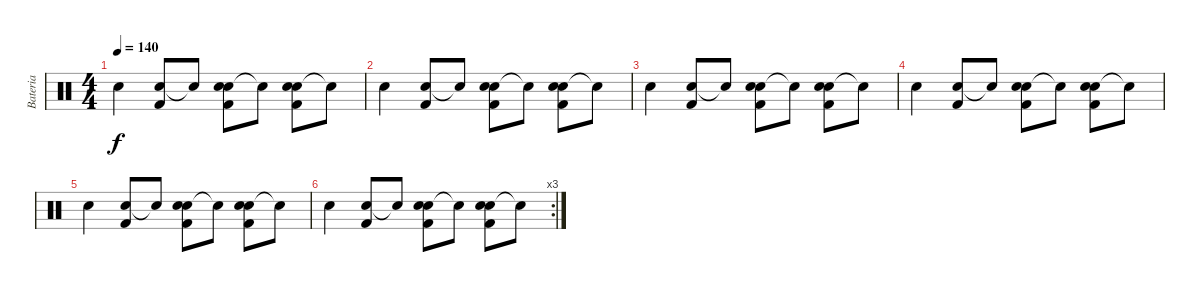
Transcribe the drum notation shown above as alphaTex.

\track ("Bateria" "Bateria") {instrument percussion}
\staff {score}
\articulation defaults
\ts (4 4)
\tempo 140
\clef neutral
\ks c "Snare (hit) 2".4{dy f}
("Snare (hit) 2" "Kick (hit) 2").8 "Snare (hit)"{t}.8 ("Electric Snare (hit)" "Snare (hit) 2" "Kick (hit) 2").8 "Snare (hit)"{t}.8 ("Electric Snare (hit)" "Snare (hit) 2" "Kick (hit) 2").8 "Snare (hit)"{t}.8 |
"Snare (hit) 2".4 ("Snare (hit) 2" "Kick (hit) 2").8 "Snare (hit)"{t}.8 ("Electric Snare (hit)" "Snare (hit) 2" "Kick (hit) 2").8 "Snare (hit)"{t}.8 ("Electric Snare (hit)" "Snare (hit) 2" "Kick (hit) 2").8 "Snare (hit)"{t}.8 |
"Snare (hit) 2".4 ("Snare (hit) 2" "Kick (hit) 2").8 "Snare (hit)"{t}.8 ("Electric Snare (hit)" "Snare (hit) 2" "Kick (hit) 2").8 "Snare (hit)"{t}.8 ("Electric Snare (hit)" "Snare (hit) 2" "Kick (hit) 2").8 "Snare (hit)"{t}.8 |
"Snare (hit) 2".4 ("Snare (hit) 2" "Kick (hit) 2").8 "Snare (hit)"{t}.8 ("Electric Snare (hit)" "Snare (hit) 2" "Kick (hit) 2").8 "Snare (hit)"{t}.8 ("Electric Snare (hit)" "Snare (hit) 2" "Kick (hit) 2").8 "Snare (hit)"{t}.8 |
"Snare (hit) 2".4 ("Snare (hit) 2" "Kick (hit) 2").8 "Snare (hit)"{t}.8 ("Electric Snare (hit)" "Snare (hit) 2" "Kick (hit) 2").8 "Snare (hit)"{t}.8 ("Electric Snare (hit)" "Snare (hit) 2" "Kick (hit) 2").8 "Snare (hit)"{t}.8 |
\rc 3 "Snare (hit) 2".4
("Snare (hit) 2" "Kick (hit) 2").8 "Snare (hit)"{t}.8 ("Electric Snare (hit)" "Snare (hit) 2" "Kick (hit) 2").8 "Snare (hit)"{t}.8 ("Electric Snare (hit)" "Snare (hit) 2" "Kick (hit) 2").8 "Snare (hit)"{t}.8
